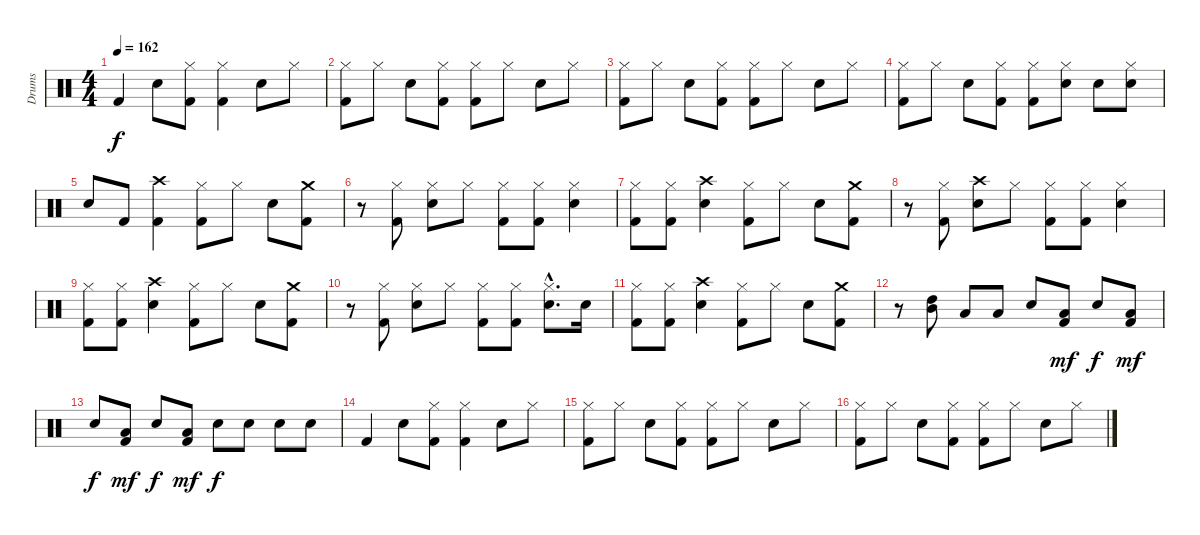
\track ("Drums" "Drums") {instrument percussion}
\staff {score}
\articulation defaults
\ts (4 4)
\tempo 162
\clef neutral
\ks c "Kick (hit) 2".4{dy f} "Snare (hit) 2".8
("Hi-Hat (closed)" "Kick (hit) 2").8 ("Hi-Hat (closed)" "Kick (hit) 2").4 "Snare (hit) 2".8 "Hi-Hat (closed)".8 |
("Hi-Hat (closed)" "Kick (hit) 2").8 "Hi-Hat (closed)".8 "Snare (hit) 2".8 ("Hi-Hat (closed)" "Kick (hit) 2").8 ("Hi-Hat (closed)" "Kick (hit) 2").8 "Hi-Hat (closed)".8 "Snare (hit) 2".8 "Hi-Hat (closed)".8 |
("Hi-Hat (closed)" "Kick (hit) 2").8 "Hi-Hat (closed)".8 "Snare (hit) 2".8 ("Hi-Hat (closed)" "Kick (hit) 2").8 ("Hi-Hat (closed)" "Kick (hit) 2").8 "Hi-Hat (closed)".8 "Snare (hit) 2".8 "Hi-Hat (closed)".8 |
("Hi-Hat (closed)" "Kick (hit) 2").8 "Hi-Hat (closed)".8 "Snare (hit) 2".8 ("Hi-Hat (closed)" "Kick (hit) 2").8 ("Hi-Hat (closed)" "Kick (hit) 2").8 ("Hi-Hat (closed)" "Snare (hit) 2").8 "Snare (hit) 2".8 ("Hi-Hat (closed)" "Snare (hit) 2").8 |
"Snare (hit) 2".8 "Kick (hit) 2".8 ("Crash high (hit)" "Kick (hit) 2").4 ("Hi-Hat (closed)" "Kick (hit) 2").8 "Hi-Hat (closed)".8 "Snare (hit) 2".8 ("Crash medium (hit)" "Kick (hit) 2").8 |
r.8 ("Hi-Hat (closed)" "Kick (hit) 2").8 ("Hi-Hat (closed)" "Snare (hit) 2").8 "Hi-Hat (closed)".8 ("Hi-Hat (closed)" "Kick (hit) 2").8 ("Hi-Hat (closed)" "Kick (hit) 2").8 ("Hi-Hat (closed)" "Snare (hit) 2").4 |
("Hi-Hat (closed)" "Kick (hit) 2").8 ("Hi-Hat (closed)" "Kick (hit) 2").8 ("Crash high (hit)" "Snare (hit) 2").4 ("Hi-Hat (closed)" "Kick (hit) 2").8 "Hi-Hat (closed)".8 "Snare (hit) 2".8 ("Crash medium (hit)" "Kick (hit) 2").8 |
r.8 ("Hi-Hat (closed)" "Kick (hit) 2").8 ("Crash high (hit)" "Snare (hit) 2").8 "Hi-Hat (closed)".8 ("Hi-Hat (closed)" "Kick (hit) 2").8 ("Hi-Hat (closed)" "Kick (hit) 2").8 ("Hi-Hat (closed)" "Snare (hit) 2").4 |
("Hi-Hat (closed)" "Kick (hit) 2").8 ("Hi-Hat (closed)" "Kick (hit) 2").8 ("Crash high (hit)" "Snare (hit) 2").4 ("Hi-Hat (closed)" "Kick (hit) 2").8 "Hi-Hat (closed)".8 "Snare (hit) 2".8 ("Crash medium (hit)" "Kick (hit) 2").8 |
r.8 ("Hi-Hat (closed)" "Kick (hit) 2").8 ("Hi-Hat (closed)" "Snare (hit) 2").8 "Hi-Hat (closed)".8 ("Hi-Hat (closed)" "Kick (hit) 2").8 ("Hi-Hat (closed)" "Kick (hit) 2").8 ("Hi-Hat (closed)"{hac} "Snare (hit) 2"{hac}).8{d} "Snare (hit) 2".16 |
("Hi-Hat (closed)" "Kick (hit) 2").8 ("Hi-Hat (closed)" "Kick (hit) 2").8 ("Crash high (hit)" "Snare (hit) 2").4 ("Hi-Hat (closed)" "Kick (hit) 2").8 "Hi-Hat (closed)".8 "Snare (hit) 2".8 ("Crash medium (hit)" "Kick (hit) 2").8 |
r.8 ("Mid Tom (hit)" "High Tom (hit)").8 "Low Tom (hit)".8 "Low Tom (hit)".8 "Snare (hit) 2".8 ("Low Tom (hit)" "Kick (hit) 2").8{dy mf} "Snare (hit) 2".8{dy f} ("Low Tom (hit)" "Kick (hit) 2").8{dy mf} |
"Snare (hit) 2".8{dy f} ("Low Tom (hit)" "Kick (hit) 2").8{dy mf} "Snare (hit) 2".8{dy f} ("Low Tom (hit)" "Kick (hit) 2").8{dy mf} "Snare (hit) 2".8{dy f} "Snare (hit) 2".8 "Snare (hit) 2".8 "Snare (hit) 2".8 |
"Kick (hit) 2".4 "Snare (hit) 2".8 ("Hi-Hat (closed)" "Kick (hit) 2").8 ("Hi-Hat (closed)" "Kick (hit) 2").4 "Snare (hit) 2".8 "Hi-Hat (closed)".8 |
("Hi-Hat (closed)" "Kick (hit) 2").8 "Hi-Hat (closed)".8 "Snare (hit) 2".8 ("Hi-Hat (closed)" "Kick (hit) 2").8 ("Hi-Hat (closed)" "Kick (hit) 2").8 "Hi-Hat (closed)".8 "Snare (hit) 2".8 "Hi-Hat (closed)".8 |
("Hi-Hat (closed)" "Kick (hit) 2").8 "Hi-Hat (closed)".8 "Snare (hit) 2".8 ("Hi-Hat (closed)" "Kick (hit) 2").8 ("Hi-Hat (closed)" "Kick (hit) 2").8 "Hi-Hat (closed)".8 "Snare (hit) 2".8 "Hi-Hat (closed)".8
